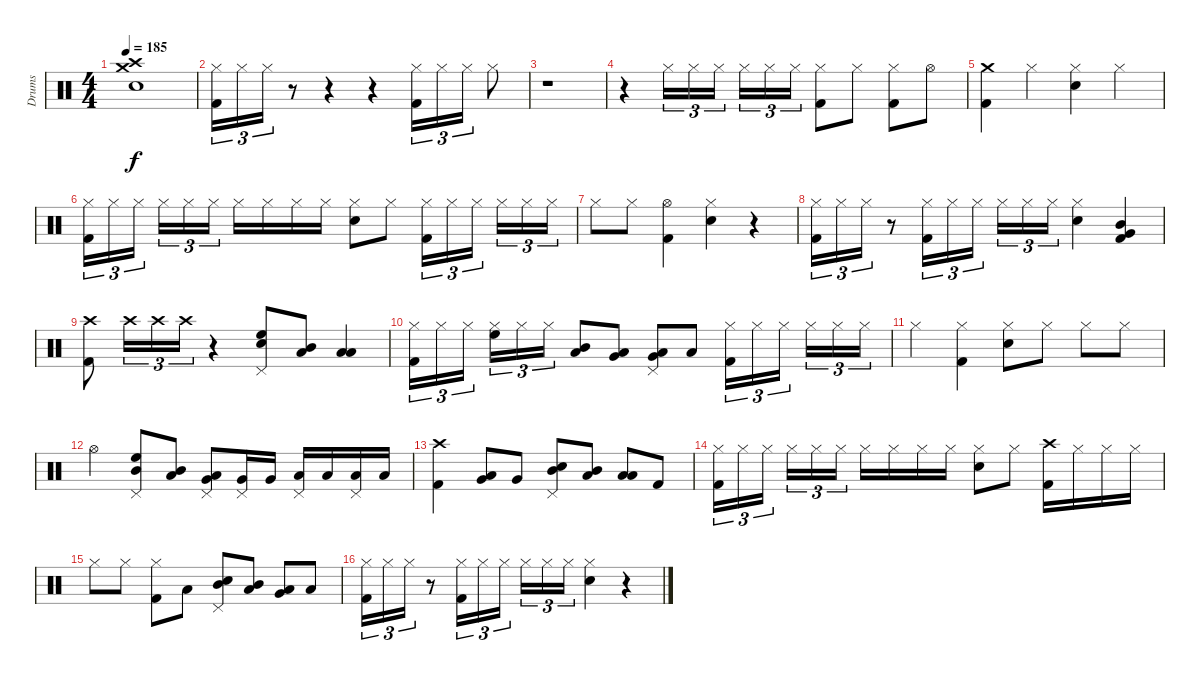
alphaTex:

\track ("Drums" "Drums") {instrument percussion}
\staff {score}
\articulation defaults
\ts (4 4)
\tempo 185
\clef neutral
\ks c
("Crash medium (hit)" "Crash high (hit)" "Snare (hit) 2").1{dy f} |
("Hi-Hat (closed)" "Kick (hit) 2").16{tu (3 2)} "Hi-Hat (closed)".16{tu (3 2)} "Hi-Hat (closed)".16{tu (3 2)} r.8 r.4 r.4 ("Hi-Hat (closed)" "Kick (hit) 2").16{tu (3 2)} "Hi-Hat (closed)".16{tu (3 2)} "Hi-Hat (closed)".16{tu (3 2)} "Hi-Hat (closed)".8 |
r.1 |
r.4 "Hi-Hat (closed)".16{tu (3 2)} "Hi-Hat (closed)".16{tu (3 2)} "Hi-Hat (closed)".16{tu (3 2)} "Hi-Hat (closed)".16{tu (3 2)} "Hi-Hat (closed)".16{tu (3 2)} "Hi-Hat (closed)".16{tu (3 2)} ("Hi-Hat (closed)" "Kick (hit) 2").8 "Hi-Hat (closed)".8 ("Hi-Hat (closed)" "Kick (hit) 2").8 "Hi-Hat (open)".8 |
("Crash medium (hit)" "Kick (hit) 2").4 "Hi-Hat (closed)".4 ("Hi-Hat (closed)" "Snare (hit) 2").4 "Hi-Hat (closed)".4 |
("Hi-Hat (closed)" "Kick (hit) 2").16{tu (3 2)} "Hi-Hat (closed)".16{tu (3 2)} "Hi-Hat (closed)".16{tu (3 2)} "Hi-Hat (closed)".16{tu (3 2)} "Hi-Hat (closed)".16{tu (3 2)} "Hi-Hat (closed)".16{tu (3 2)} "Hi-Hat (closed)".16 "Hi-Hat (closed)".16 "Hi-Hat (closed)".16 "Hi-Hat (closed)".16 ("Hi-Hat (closed)" "Snare (hit) 2").8 "Hi-Hat (closed)".8 ("Hi-Hat (closed)" "Kick (hit) 2").16{tu (3 2)} "Hi-Hat (closed)".16{tu (3 2)} "Hi-Hat (closed)".16{tu (3 2)} "Hi-Hat (closed)".16{tu (3 2)} "Hi-Hat (closed)".16{tu (3 2)} "Hi-Hat (closed)".16{tu (3 2)} |
"Hi-Hat (closed)".8 "Hi-Hat (closed)".8 ("Hi-Hat (open)" "Kick (hit) 2").4 ("Hi-Hat (closed)" "Snare (hit) 2").4 r.4 |
("Hi-Hat (closed)" "Kick (hit) 2").16{tu (3 2)} "Hi-Hat (closed)".16{tu (3 2)} "Hi-Hat (closed)".16{tu (3 2)} r.8 ("Hi-Hat (closed)" "Kick (hit) 2").16{tu (3 2)} "Hi-Hat (closed)".16{tu (3 2)} "Hi-Hat (closed)".16{tu (3 2)} "Hi-Hat (closed)".16{tu (3 2)} "Hi-Hat (closed)".16{tu (3 2)} "Hi-Hat (closed)".16{tu (3 2)} ("Hi-Hat (closed)" "Snare (hit) 2").4 ("Mid Tom (hit)" "Very Low Tom (hit)" "Kick (hit) 2").4 |
("Crash high (hit)" "Kick (hit) 2").8 "Crash high (hit)".16{tu (3 2)} "Crash high (hit)".16{tu (3 2)} "Crash high (hit)".16{tu (3 2)} r.4 ("High Floor Tom (hit)" "Snare (hit) 2" "Pedal Hi-Hat (hit)").8 ("Mid Tom (hit)" "Low Tom (hit)").8 ("Low Tom (hit)" "Low Floor Tom (hit)").4 |
("Hi-Hat (closed)" "Kick (hit) 2").16{tu (3 2)} "Hi-Hat (closed)".16{tu (3 2)} "Hi-Hat (closed)".16{tu (3 2)} ("High Floor Tom (hit)" "Hi-Hat (closed)").16{tu (3 2)} "Hi-Hat (closed)".16{tu (3 2)} "Hi-Hat (closed)".16{tu (3 2)} ("Mid Tom (hit)" "Low Tom (hit)").8 ("Low Tom (hit)" "Very Low Tom (hit)").8 ("Very Low Tom (hit)" "Low Floor Tom (hit)" "Pedal Hi-Hat (hit)").8 "Low Floor Tom (hit)".8 ("Hi-Hat (closed)" "Kick (hit) 2").16{tu (3 2)} "Hi-Hat (closed)".16{tu (3 2)} "Hi-Hat (closed)".16{tu (3 2)} "Hi-Hat (closed)".16{tu (3 2)} "Hi-Hat (closed)".16{tu (3 2)} "Hi-Hat (closed)".16{tu (3 2)} |
"Hi-Hat (closed)".4 ("Hi-Hat (closed)" "Kick (hit) 2").4 ("Hi-Hat (closed)" "Snare (hit) 2").8 "Hi-Hat (closed)".8 "Hi-Hat (closed)".8 "Hi-Hat (closed)".8 |
"Hi-Hat (open)".4 ("High Floor Tom (hit)" "Mid Tom (hit)" "Pedal Hi-Hat (hit)").8 ("Mid Tom (hit)" "Low Tom (hit)").8 ("Low Tom (hit)" "Very Low Tom (hit)" "Pedal Hi-Hat (hit)").8 ("Very Low Tom (hit)" "Pedal Hi-Hat (hit)").16 "Very Low Tom (hit)".16 ("Low Floor Tom (hit)" "Pedal Hi-Hat (hit)").16 "Low Floor Tom (hit)".16 ("Low Floor Tom (hit)" "Pedal Hi-Hat (hit)").16 "Low Floor Tom (hit)".16 |
("Crash high (hit)" "Kick (hit) 2").4 ("Low Tom (hit)" "Very Low Tom (hit)").8 "Very Low Tom (hit)".8 ("Mid Tom (hit)" "Snare (hit) 2" "Pedal Hi-Hat (hit)").8 ("Mid Tom (hit)" "Low Tom (hit)").8 ("Low Tom (hit)" "Low Floor Tom (hit)").8 "Kick (hit) 2".8 |
("Hi-Hat (closed)" "Kick (hit) 2").16{tu (3 2)} "Hi-Hat (closed)".16{tu (3 2)} "Hi-Hat (closed)".16{tu (3 2)} "Hi-Hat (closed)".16{tu (3 2)} "Hi-Hat (closed)".16{tu (3 2)} "Hi-Hat (closed)".16{tu (3 2)} "Hi-Hat (closed)".16 "Hi-Hat (closed)".16 "Hi-Hat (closed)".16 "Hi-Hat (closed)".16 ("Hi-Hat (closed)" "Snare (hit) 2").8 "Hi-Hat (closed)".8 ("Crash high (hit)" "Kick (hit) 2").16 "Hi-Hat (closed)".16 "Hi-Hat (closed)".16 "Hi-Hat (closed)".16 |
"Hi-Hat (closed)".8 "Hi-Hat (closed)".8 ("Hi-Hat (closed)" "Kick (hit) 2").8 "Low Floor Tom (hit)".8 ("Mid Tom (hit)" "Snare (hit) 2" "Pedal Hi-Hat (hit)").8 ("Mid Tom (hit)" "Low Tom (hit)").8 ("Low Tom (hit)" "Very Low Tom (hit)").8 "Low Floor Tom (hit)".8 |
("Hi-Hat (closed)" "Kick (hit) 2").16{tu (3 2)} "Hi-Hat (closed)".16{tu (3 2)} "Hi-Hat (closed)".16{tu (3 2)} r.8 ("Hi-Hat (closed)" "Kick (hit) 2").16{tu (3 2)} "Hi-Hat (closed)".16{tu (3 2)} "Hi-Hat (closed)".16{tu (3 2)} "Hi-Hat (closed)".16{tu (3 2)} "Hi-Hat (closed)".16{tu (3 2)} "Hi-Hat (closed)".16{tu (3 2)} ("Hi-Hat (closed)" "Snare (hit) 2").4 r.4
